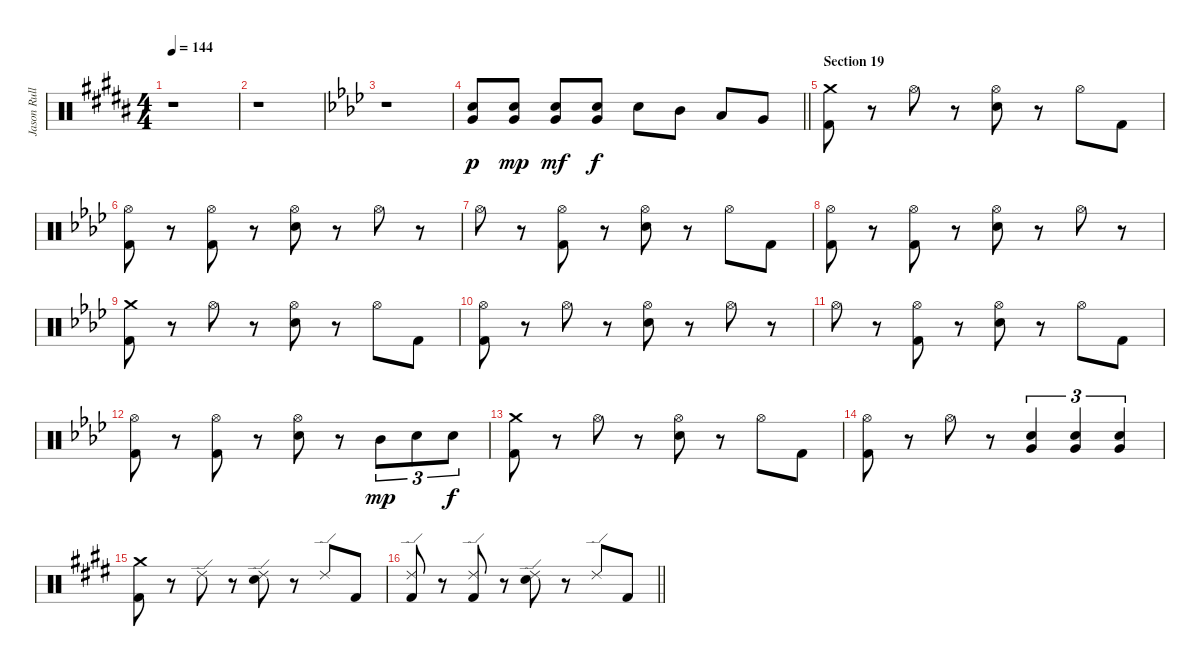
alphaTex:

\track ("Jason Rullo (drums)" "Jason Rull") {instrument percussion}
\staff {score}
\articulation defaults
\ts (4 4)
\tempo 144
\clef neutral
\ks g#minor
r.1{dy f} |
r.1 |
\ks fminor
r.1 |
\barLineRight lightlight
("Very Low Tom (hit)" "Electric Snare (hit)").8{dy p} ("Very Low Tom (hit)" "Electric Snare (hit)").8{dy mp} ("Very Low Tom (hit)" "Electric Snare (hit)").8{dy mf} ("Very Low Tom (hit)" "Electric Snare (hit)").8{dy f} "Electric Snare (hit)".8 "Mid Tom (hit)".8 "Low Tom (hit)".8 "Very Low Tom (hit)".8 |
\section ("" "Section 19")
("Kick (hit) 2" "Crash medium (hit)").8 r.8 "Hi-Hat (open)".8 r.8 ("Electric Snare (hit)" "Hi-Hat (open)").8 r.8 "Hi-Hat (open)".8 "Kick (hit) 2".8 |
("Hi-Hat (open)" "Kick (hit) 2").8 r.8 ("Hi-Hat (open)" "Kick (hit) 2").8 r.8 ("Hi-Hat (open)" "Electric Snare (hit)").8 r.8 "Hi-Hat (open)".8 r.8 |
"Hi-Hat (open)".8 r.8 ("Hi-Hat (open)" "Kick (hit) 2").8 r.8 ("Hi-Hat (open)" "Electric Snare (hit)").8 r.8 "Hi-Hat (open)".8 "Kick (hit) 2".8 |
("Hi-Hat (open)" "Kick (hit) 2").8 r.8 ("Hi-Hat (open)" "Kick (hit) 2").8 r.8 ("Hi-Hat (open)" "Electric Snare (hit)").8 r.8 "Hi-Hat (open)".8 r.8 |
("Kick (hit) 2" "Crash medium (hit)").8 r.8 "Hi-Hat (open)".8 r.8 ("Electric Snare (hit)" "Hi-Hat (open)").8 r.8 "Hi-Hat (open)".8 "Kick (hit) 2".8 |
("Hi-Hat (open)" "Kick (hit) 2").8 r.8 "Hi-Hat (open)".8 r.8 ("Hi-Hat (open)" "Electric Snare (hit)").8 r.8 "Hi-Hat (open)".8 r.8 |
"Hi-Hat (open)".8 r.8 ("Hi-Hat (open)" "Kick (hit) 2").8 r.8 ("Hi-Hat (open)" "Electric Snare (hit)").8 r.8 "Hi-Hat (open)".8 "Kick (hit) 2".8 |
("Hi-Hat (open)" "Kick (hit) 2").8 r.8 ("Hi-Hat (open)" "Kick (hit) 2").8 r.8 ("Hi-Hat (open)" "Electric Snare (hit)").8 r.8 "Mid Tom (hit)".8{tu (3 2) dy mp} "Electric Snare (hit)".8{tu (3 2)} "Electric Snare (hit)".8{tu (3 2) dy f} |
("Kick (hit) 2" "Crash medium (hit)").8 r.8 "Hi-Hat (open)".8 r.8 ("Electric Snare (hit)" "Hi-Hat (open)").8 r.8 "Hi-Hat (open)".8 "Kick (hit) 2".8 |
("Kick (hit) 2" "Hi-Hat (open)").8 r.8 "Hi-Hat (open)".8 r.8 ("Very Low Tom (hit)" "Electric Snare (hit)").4{tu (3 2)} ("Very Low Tom (hit)" "Electric Snare (hit)").4{tu (3 2)} ("Very Low Tom (hit)" "Electric Snare (hit)").4{tu (3 2)} |
\ks c#minor
("Crash medium (hit)" "Kick (hit) 2").8 r.8 "Ride (edge) 2".8 r.8 ("Ride (edge) 2" "Electric Snare (hit)").8 r.8 "Ride (edge) 2".8 "Kick (hit) 2".8 |
\barLineRight lightlight
("Ride (edge) 2" "Kick (hit) 2").8 r.8 ("Ride (edge) 2" "Kick (hit) 2").8 r.8 ("Ride (edge) 2" "Electric Snare (hit)").8 r.8 "Ride (edge) 2".8 "Kick (hit) 2".8
